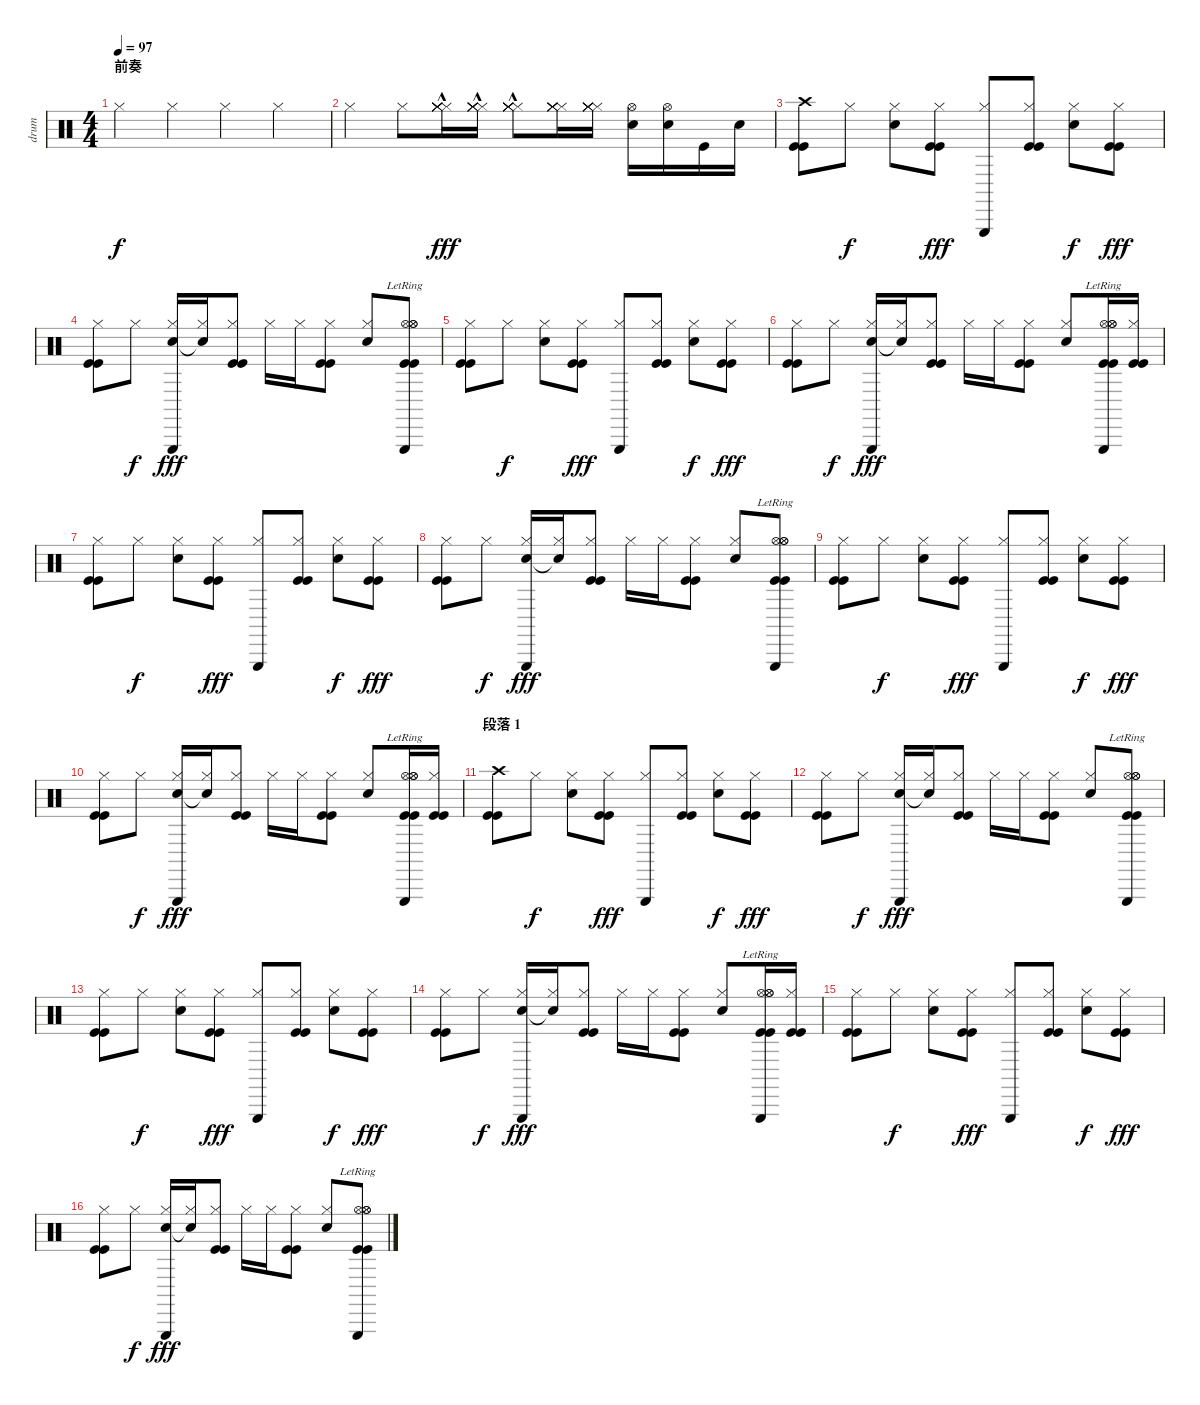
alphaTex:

\track ("drum" "drum") {instrument percussion}
\staff {score}
\articulation defaults
\ts (4 4)
\section ("" "前奏")
\tempo 97
\clef neutral
\ks c "Hi-Hat (closed)".4{dy f} "Hi-Hat (closed)".4 "Hi-Hat (closed)".4 "Hi-Hat (closed)".4
|
"Hi-Hat (closed)".4 "Hi-Hat (closed)".8 ("Hi-Hat (closed)"{hac} "Hi-Hat (closed)" "Hi-Hat (closed)" "Hi-Hat (closed)" "Hi-Hat (closed)" "Hi-Hat (closed)").16{dy fff} ("Hi-Hat (closed)"{hac} "Hi-Hat (closed)" "Hi-Hat (closed)" "Hi-Hat (closed)" "Hi-Hat (closed)" "Hi-Hat (closed)").16 ("Hi-Hat (closed)" "Hi-Hat (closed)"{hac} "Hi-Hat (closed)" "Hi-Hat (closed)" "Hi-Hat (closed)" "Hi-Hat (closed)").8 ("Hi-Hat (closed)" "Hi-Hat (closed)" "Hi-Hat (closed)" "Hi-Hat (closed)" "Hi-Hat (closed)" "Hi-Hat (closed)").16 ("Hi-Hat (closed)" "Hi-Hat (closed)" "Hi-Hat (closed)" "Hi-Hat (closed)" "Hi-Hat (closed)" "Hi-Hat (closed)").16 ("Hi-Hat (open)" "Electric Snare (hit)").16 ("Hi-Hat (open)" "Electric Snare (hit)").16 "Kick (hit)".16 "Electric Snare (hit)".16 |
("Crash high (hit)" "Kick (hit)" "Kick (hit)").8 "Hi-Hat (closed)".8{dy f} ("Hi-Hat (closed)" "Electric Snare (hit)").8 ("Hi-Hat (closed)" "Kick (hit)" "Kick (hit)").8{dy fff} ("Hi-Hat (closed)" "Triangle (hit)").8 ("Hi-Hat (closed)" "Kick (hit)" "Kick (hit)").8 ("Hi-Hat (closed)" "Electric Snare (hit)").8{dy f} ("Hi-Hat (closed)" "Kick (hit)" "Kick (hit)").8{dy fff} |
("Hi-Hat (closed)" "Kick (hit)" "Kick (hit)").8 "Hi-Hat (closed)".8{dy f} ("Hi-Hat (closed)" "Electric Snare (hit)" "Triangle (hit)").16{dy fff} ("Hi-Hat (closed)" "Snare (hit)"{t}).16 ("Hi-Hat (closed)" "Kick (hit)" "Kick (hit)").8 "Hi-Hat (closed)".16 "Hi-Hat (closed)".16 ("Hi-Hat (closed)" "Kick (hit)" "Kick (hit)").8 ("Hi-Hat (closed)" "Electric Snare (hit)").8 ("Hi-Hat (open)" "Hi-Hat (open)" "Hi-Hat (open)" "Triangle (hit)"{lr} "Kick (hit)" "Kick (hit)").8 |
("Hi-Hat (closed)" "Kick (hit)" "Kick (hit)").8 "Hi-Hat (closed)".8{dy f} ("Hi-Hat (closed)" "Electric Snare (hit)").8 ("Hi-Hat (closed)" "Kick (hit)" "Kick (hit)").8{dy fff} ("Hi-Hat (closed)" "Triangle (hit)").8 ("Hi-Hat (closed)" "Kick (hit)" "Kick (hit)").8 ("Hi-Hat (closed)" "Electric Snare (hit)").8{dy f} ("Hi-Hat (closed)" "Kick (hit)" "Kick (hit)").8{dy fff} |
("Hi-Hat (closed)" "Kick (hit)" "Kick (hit)").8 "Hi-Hat (closed)".8{dy f} ("Hi-Hat (closed)" "Electric Snare (hit)" "Triangle (hit)").16{dy fff} ("Hi-Hat (closed)" "Snare (hit)"{t}).16 ("Hi-Hat (closed)" "Kick (hit)" "Kick (hit)").8 "Hi-Hat (closed)".16 "Hi-Hat (closed)".16 ("Hi-Hat (closed)" "Kick (hit)" "Kick (hit)").8 ("Hi-Hat (closed)" "Electric Snare (hit)").8 ("Hi-Hat (open)" "Hi-Hat (open)" "Hi-Hat (open)" "Triangle (hit)"{lr} "Kick (hit)" "Kick (hit)").16 ("Hi-Hat (closed)" "Kick (hit)" "Kick (hit)").16 |
("Hi-Hat (closed)" "Kick (hit)" "Kick (hit)").8 "Hi-Hat (closed)".8{dy f} ("Hi-Hat (closed)" "Electric Snare (hit)").8 ("Hi-Hat (closed)" "Kick (hit)" "Kick (hit)").8{dy fff} ("Hi-Hat (closed)" "Triangle (hit)").8 ("Hi-Hat (closed)" "Kick (hit)" "Kick (hit)").8 ("Hi-Hat (closed)" "Electric Snare (hit)").8{dy f} ("Hi-Hat (closed)" "Kick (hit)" "Kick (hit)").8{dy fff} |
("Hi-Hat (closed)" "Kick (hit)" "Kick (hit)").8 "Hi-Hat (closed)".8{dy f} ("Hi-Hat (closed)" "Electric Snare (hit)" "Triangle (hit)").16{dy fff} ("Hi-Hat (closed)" "Snare (hit)"{t}).16 ("Hi-Hat (closed)" "Kick (hit)" "Kick (hit)").8 "Hi-Hat (closed)".16 "Hi-Hat (closed)".16 ("Hi-Hat (closed)" "Kick (hit)" "Kick (hit)").8 ("Hi-Hat (closed)" "Electric Snare (hit)").8 ("Hi-Hat (open)" "Hi-Hat (open)" "Hi-Hat (open)" "Triangle (hit)"{lr} "Kick (hit)" "Kick (hit)").8 |
("Hi-Hat (closed)" "Kick (hit)" "Kick (hit)").8 "Hi-Hat (closed)".8{dy f} ("Hi-Hat (closed)" "Electric Snare (hit)").8 ("Hi-Hat (closed)" "Kick (hit)" "Kick (hit)").8{dy fff} ("Hi-Hat (closed)" "Triangle (hit)").8 ("Hi-Hat (closed)" "Kick (hit)" "Kick (hit)").8 ("Hi-Hat (closed)" "Electric Snare (hit)").8{dy f} ("Hi-Hat (closed)" "Kick (hit)" "Kick (hit)").8{dy fff} |
("Hi-Hat (closed)" "Kick (hit)" "Kick (hit)").8 "Hi-Hat (closed)".8{dy f} ("Hi-Hat (closed)" "Electric Snare (hit)" "Triangle (hit)").16{dy fff} ("Hi-Hat (closed)" "Snare (hit)"{t}).16 ("Hi-Hat (closed)" "Kick (hit)" "Kick (hit)").8 "Hi-Hat (closed)".16 "Hi-Hat (closed)".16 ("Hi-Hat (closed)" "Kick (hit)" "Kick (hit)").8 ("Hi-Hat (closed)" "Electric Snare (hit)").8 ("Hi-Hat (open)" "Hi-Hat (open)" "Hi-Hat (open)" "Triangle (hit)"{lr} "Kick (hit)" "Kick (hit)").16 ("Hi-Hat (closed)" "Kick (hit)" "Kick (hit)").16 |
\section ("" "段落 1")
("Crash high (hit)" "Kick (hit)" "Kick (hit)").8 "Hi-Hat (closed)".8{dy f} ("Hi-Hat (closed)" "Electric Snare (hit)").8 ("Hi-Hat (closed)" "Kick (hit)" "Kick (hit)").8{dy fff} ("Hi-Hat (closed)" "Triangle (hit)").8 ("Hi-Hat (closed)" "Kick (hit)" "Kick (hit)").8 ("Hi-Hat (closed)" "Electric Snare (hit)").8{dy f} ("Hi-Hat (closed)" "Kick (hit)" "Kick (hit)").8{dy fff} |
("Hi-Hat (closed)" "Kick (hit)" "Kick (hit)").8 "Hi-Hat (closed)".8{dy f} ("Hi-Hat (closed)" "Electric Snare (hit)" "Triangle (hit)").16{dy fff} ("Hi-Hat (closed)" "Snare (hit)"{t}).16 ("Hi-Hat (closed)" "Kick (hit)" "Kick (hit)").8 "Hi-Hat (closed)".16 "Hi-Hat (closed)".16 ("Hi-Hat (closed)" "Kick (hit)" "Kick (hit)").8 ("Hi-Hat (closed)" "Electric Snare (hit)").8 ("Hi-Hat (open)" "Hi-Hat (open)" "Hi-Hat (open)" "Triangle (hit)"{lr} "Kick (hit)" "Kick (hit)").8 |
("Hi-Hat (closed)" "Kick (hit)" "Kick (hit)").8 "Hi-Hat (closed)".8{dy f} ("Hi-Hat (closed)" "Electric Snare (hit)").8 ("Hi-Hat (closed)" "Kick (hit)" "Kick (hit)").8{dy fff} ("Hi-Hat (closed)" "Triangle (hit)").8 ("Hi-Hat (closed)" "Kick (hit)" "Kick (hit)").8 ("Hi-Hat (closed)" "Electric Snare (hit)").8{dy f} ("Hi-Hat (closed)" "Kick (hit)" "Kick (hit)").8{dy fff} |
("Hi-Hat (closed)" "Kick (hit)" "Kick (hit)").8 "Hi-Hat (closed)".8{dy f} ("Hi-Hat (closed)" "Electric Snare (hit)" "Triangle (hit)").16{dy fff} ("Hi-Hat (closed)" "Snare (hit)"{t}).16 ("Hi-Hat (closed)" "Kick (hit)" "Kick (hit)").8 "Hi-Hat (closed)".16 "Hi-Hat (closed)".16 ("Hi-Hat (closed)" "Kick (hit)" "Kick (hit)").8 ("Hi-Hat (closed)" "Electric Snare (hit)").8 ("Hi-Hat (open)" "Hi-Hat (open)" "Hi-Hat (open)" "Triangle (hit)"{lr} "Kick (hit)" "Kick (hit)").16 ("Hi-Hat (closed)" "Kick (hit)" "Kick (hit)").16 |
("Hi-Hat (closed)" "Kick (hit)" "Kick (hit)").8 "Hi-Hat (closed)".8{dy f} ("Hi-Hat (closed)" "Electric Snare (hit)").8 ("Hi-Hat (closed)" "Kick (hit)" "Kick (hit)").8{dy fff} ("Hi-Hat (closed)" "Triangle (hit)").8 ("Hi-Hat (closed)" "Kick (hit)" "Kick (hit)").8 ("Hi-Hat (closed)" "Electric Snare (hit)").8{dy f} ("Hi-Hat (closed)" "Kick (hit)" "Kick (hit)").8{dy fff} |
("Hi-Hat (closed)" "Kick (hit)" "Kick (hit)").8 "Hi-Hat (closed)".8{dy f} ("Hi-Hat (closed)" "Electric Snare (hit)" "Triangle (hit)").16{dy fff} ("Hi-Hat (closed)" "Snare (hit)"{t}).16 ("Hi-Hat (closed)" "Kick (hit)" "Kick (hit)").8 "Hi-Hat (closed)".16 "Hi-Hat (closed)".16 ("Hi-Hat (closed)" "Kick (hit)" "Kick (hit)").8 ("Hi-Hat (closed)" "Electric Snare (hit)").8 ("Hi-Hat (open)" "Hi-Hat (open)" "Hi-Hat (open)" "Triangle (hit)"{lr} "Kick (hit)" "Kick (hit)").8
